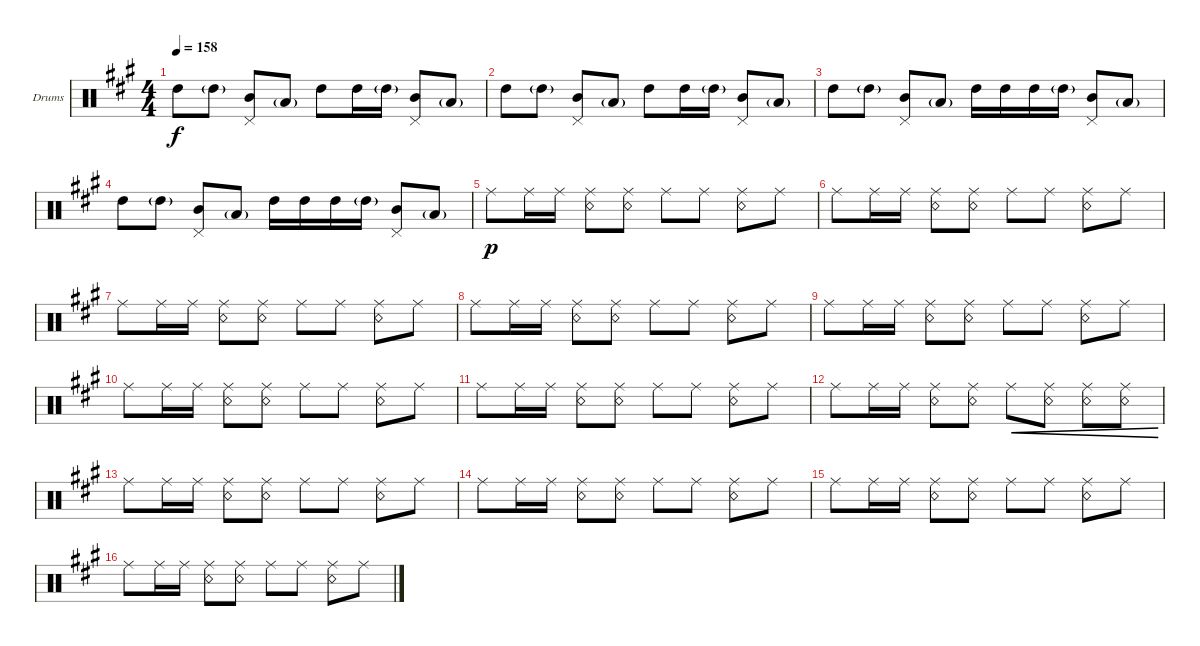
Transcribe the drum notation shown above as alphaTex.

\defaultSystemsLayout 4
\bracketExtendMode groupsimilarinstruments
\firstSystemTrackNameOrientation horizontal
\otherSystemsTrackNameOrientation horizontal
\track ("Drums" "Drums") {instrument percussion}
\staff {score}
\articulation defaults
\ts (4 4)
\tempo 158
\clef neutral
\scale
0.333333
\ks a "High Tom (hit)".8{dy f} "High Tom (hit)"{g}.8
("Mid Tom (hit)" "Pedal Hi-Hat (hit)").8 "Low Tom (hit)"{g}.8 "High Tom (hit)".8 "High Tom (hit)".16 "High Tom (hit)"{g}.16 ("Mid Tom (hit)" "Pedal Hi-Hat (hit)").8 "Low Tom (hit)"{g}.8 |
\scale
0.333333 "High Tom (hit)".8 "High Tom (hit)"{g}.8 ("Mid Tom (hit)" "Pedal Hi-Hat (hit)").8 "Low Tom (hit)"{g}.8 "High Tom (hit)".8 "High Tom (hit)".16 "High Tom (hit)"{g}.16 ("Mid Tom (hit)" "Pedal Hi-Hat (hit)").8 "Low Tom (hit)"{g}.8 |
\scale
0.333333 "High Tom (hit)".8 "High Tom (hit)"{g}.8 ("Mid Tom (hit)" "Pedal Hi-Hat (hit)").8 "Low Tom (hit)"{g}.8 "High Tom (hit)".16 "High Tom (hit)".16 "High Tom (hit)".16 "High Tom (hit)"{g}.16 ("Mid Tom (hit)" "Pedal Hi-Hat (hit)").8 "Low Tom (hit)"{g}.8 |
\scale
0.333333 "High Tom (hit)".8 "High Tom (hit)"{g}.8 ("Mid Tom (hit)" "Pedal Hi-Hat (hit)").8 "Low Tom (hit)"{g}.8 "High Tom (hit)".16 "High Tom (hit)".16 "High Tom (hit)".16 "High Tom (hit)"{g}.16 ("Mid Tom (hit)" "Pedal Hi-Hat (hit)").8 "Low Tom (hit)"{g}.8 |
\scale
0.333333 "Ride (middle)".8{dy p} "Ride (middle)".16 "Ride (middle)".16 ("Ride (middle)" "Snare (rim shot)").8 ("Ride (middle)" "Snare (rim shot)").8 "Ride (middle)".8 "Ride (middle)".8 ("Ride (middle)" "Snare (rim shot)").8 "Ride (middle)".8 |
\scale
0.333333 "Ride (middle)".8 "Ride (middle)".16 "Ride (middle)".16 ("Ride (middle)" "Snare (rim shot)").8 ("Ride (middle)" "Snare (rim shot)").8 "Ride (middle)".8 "Ride (middle)".8 ("Ride (middle)" "Snare (rim shot)").8 "Ride (middle)".8 |
\scale
0.333333 "Ride (middle)".8 "Ride (middle)".16 "Ride (middle)".16 ("Ride (middle)" "Snare (rim shot)").8 ("Ride (middle)" "Snare (rim shot)").8 "Ride (middle)".8 "Ride (middle)".8 ("Ride (middle)" "Snare (rim shot)").8 "Ride (middle)".8 |
\scale
0.333333 "Ride (middle)".8 "Ride (middle)".16 "Ride (middle)".16 ("Ride (middle)" "Snare (rim shot)").8 ("Ride (middle)" "Snare (rim shot)").8 "Ride (middle)".8 "Ride (middle)".8 ("Ride (middle)" "Snare (rim shot)").8 "Ride (middle)".8 |
\scale
0.333333 "Ride (middle)".8 "Ride (middle)".16 "Ride (middle)".16 ("Ride (middle)" "Snare (rim shot)").8 ("Ride (middle)" "Snare (rim shot)").8 "Ride (middle)".8 "Ride (middle)".8 ("Ride (middle)" "Snare (rim shot)").8 "Ride (middle)".8 |
\scale
0.333333 "Ride (middle)".8 "Ride (middle)".16 "Ride (middle)".16 ("Ride (middle)" "Snare (rim shot)").8 ("Ride (middle)" "Snare (rim shot)").8 "Ride (middle)".8 "Ride (middle)".8 ("Ride (middle)" "Snare (rim shot)").8 "Ride (middle)".8 |
\scale
0.333333 "Ride (middle)".8 "Ride (middle)".16 "Ride (middle)".16 ("Ride (middle)" "Snare (rim shot)").8 ("Ride (middle)" "Snare (rim shot)").8 "Ride (middle)".8 "Ride (middle)".8 ("Ride (middle)" "Snare (rim shot)").8 "Ride (middle)".8 |
\scale
0.333333 "Ride (middle)".8 "Ride (middle)".16 "Ride (middle)".16 ("Ride (middle)" "Snare (rim shot)").8 ("Ride (middle)" "Snare (rim shot)").8 "Ride (middle)".8{cre} ("Ride (middle)" "Snare (rim shot)").8{cre} ("Ride (middle)" "Snare (rim shot)").8{cre} ("Ride (middle)" "Snare (rim shot)").8{cre} |
\scale
0.333333 "Ride (middle)".8 "Ride (middle)".16 "Ride (middle)".16 ("Ride (middle)" "Snare (rim shot)").8 ("Ride (middle)" "Snare (rim shot)").8 "Ride (middle)".8 "Ride (middle)".8 ("Ride (middle)" "Snare (rim shot)").8 "Ride (middle)".8 |
\scale
0.333333 "Ride (middle)".8 "Ride (middle)".16 "Ride (middle)".16 ("Ride (middle)" "Snare (rim shot)").8 ("Ride (middle)" "Snare (rim shot)").8 "Ride (middle)".8 "Ride (middle)".8 ("Ride (middle)" "Snare (rim shot)").8 "Ride (middle)".8 |
\scale
0.333333 "Ride (middle)".8 "Ride (middle)".16 "Ride (middle)".16 ("Ride (middle)" "Snare (rim shot)").8 ("Ride (middle)" "Snare (rim shot)").8 "Ride (middle)".8 "Ride (middle)".8 ("Ride (middle)" "Snare (rim shot)").8 "Ride (middle)".8 |
\scale
0.333333 "Ride (middle)".8 "Ride (middle)".16 "Ride (middle)".16 ("Ride (middle)" "Snare (rim shot)").8 ("Ride (middle)" "Snare (rim shot)").8 "Ride (middle)".8 "Ride (middle)".8 ("Ride (middle)" "Snare (rim shot)").8 "Ride (middle)".8
